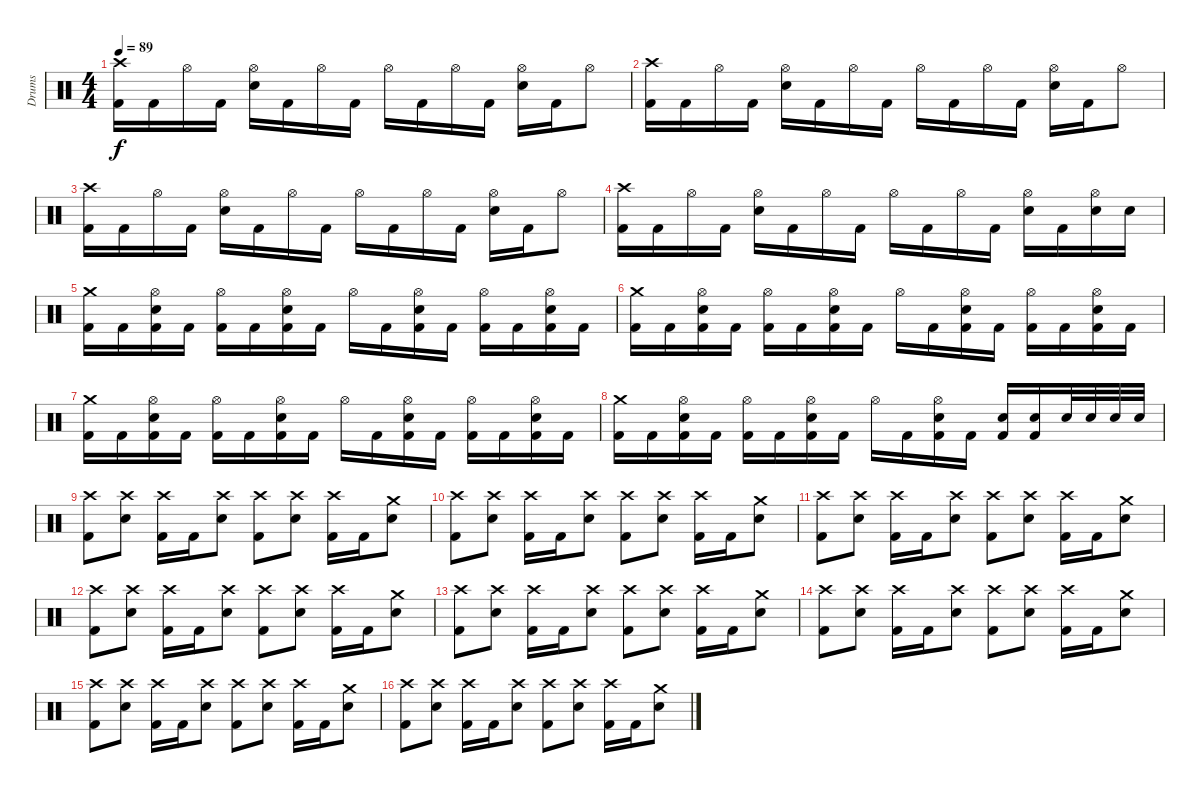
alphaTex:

\track ("Drums" "Drums") {instrument percussion}
\staff {score}
\articulation defaults
\ts (4 4)
\tempo 89
\clef neutral
\ks c
("Kick (hit) 2" "Crash high (hit)").16{dy f} "Kick (hit) 2".16 "Hi-Hat (open)".16 "Kick (hit) 2".16 ("Electric Snare (hit)" "Hi-Hat (open)").16 "Kick (hit) 2".16 "Hi-Hat (open)".16 "Kick (hit) 2".16 "Hi-Hat (open)".16 "Kick (hit) 2".16 "Hi-Hat (open)".16 "Kick (hit) 2".16 ("Electric Snare (hit)" "Hi-Hat (open)").16 "Kick (hit) 2".16 "Hi-Hat (open)".8 |
("Kick (hit) 2" "Crash high (hit)").16 "Kick (hit) 2".16 "Hi-Hat (open)".16 "Kick (hit) 2".16 ("Electric Snare (hit)" "Hi-Hat (open)").16 "Kick (hit) 2".16 "Hi-Hat (open)".16 "Kick (hit) 2".16 "Hi-Hat (open)".16 "Kick (hit) 2".16 "Hi-Hat (open)".16 "Kick (hit) 2".16 ("Electric Snare (hit)" "Hi-Hat (open)").16 "Kick (hit) 2".16 "Hi-Hat (open)".8 |
("Kick (hit) 2" "Crash high (hit)").16 "Kick (hit) 2".16 "Hi-Hat (open)".16 "Kick (hit) 2".16 ("Electric Snare (hit)" "Hi-Hat (open)").16 "Kick (hit) 2".16 "Hi-Hat (open)".16 "Kick (hit) 2".16 "Hi-Hat (open)".16 "Kick (hit) 2".16 "Hi-Hat (open)".16 "Kick (hit) 2".16 ("Electric Snare (hit)" "Hi-Hat (open)").16 "Kick (hit) 2".16 "Hi-Hat (open)".8 |
("Kick (hit) 2" "Crash high (hit)").16 "Kick (hit) 2".16 "Hi-Hat (open)".16 "Kick (hit) 2".16 ("Electric Snare (hit)" "Hi-Hat (open)").16 "Kick (hit) 2".16 "Hi-Hat (open)".16 "Kick (hit) 2".16 "Hi-Hat (open)".16 "Kick (hit) 2".16 "Hi-Hat (open)".16 "Kick (hit) 2".16 ("Electric Snare (hit)" "Hi-Hat (open)").16 "Kick (hit) 2".16 ("Electric Snare (hit)" "Hi-Hat (open)").16 "Electric Snare (hit)".16 |
("Crash medium (hit)" "Kick (hit) 2").16 "Kick (hit) 2".16 ("Hi-Hat (open)" "Electric Snare (hit)" "Kick (hit) 2").16 "Kick (hit) 2".16 ("Hi-Hat (open)" "Kick (hit) 2").16 "Kick (hit) 2".16 ("Hi-Hat (open)" "Electric Snare (hit)" "Kick (hit) 2").16 "Kick (hit) 2".16 "Hi-Hat (open)".16 "Kick (hit) 2".16 ("Hi-Hat (open)" "Electric Snare (hit)" "Kick (hit) 2").16 "Kick (hit) 2".16 ("Hi-Hat (open)" "Kick (hit) 2").16 "Kick (hit) 2".16 ("Hi-Hat (open)" "Electric Snare (hit)" "Kick (hit) 2").16 "Kick (hit) 2".16 |
("Crash medium (hit)" "Kick (hit) 2").16 "Kick (hit) 2".16 ("Hi-Hat (open)" "Electric Snare (hit)" "Kick (hit) 2").16 "Kick (hit) 2".16 ("Hi-Hat (open)" "Kick (hit) 2").16 "Kick (hit) 2".16 ("Hi-Hat (open)" "Electric Snare (hit)" "Kick (hit) 2").16 "Kick (hit) 2".16 "Hi-Hat (open)".16 "Kick (hit) 2".16 ("Hi-Hat (open)" "Electric Snare (hit)" "Kick (hit) 2").16 "Kick (hit) 2".16 ("Hi-Hat (open)" "Kick (hit) 2").16 "Kick (hit) 2".16 ("Hi-Hat (open)" "Electric Snare (hit)" "Kick (hit) 2").16 "Kick (hit) 2".16 |
("Crash medium (hit)" "Kick (hit) 2").16 "Kick (hit) 2".16 ("Hi-Hat (open)" "Electric Snare (hit)" "Kick (hit) 2").16 "Kick (hit) 2".16 ("Hi-Hat (open)" "Kick (hit) 2").16 "Kick (hit) 2".16 ("Hi-Hat (open)" "Electric Snare (hit)" "Kick (hit) 2").16 "Kick (hit) 2".16 "Hi-Hat (open)".16 "Kick (hit) 2".16 ("Hi-Hat (open)" "Electric Snare (hit)" "Kick (hit) 2").16 "Kick (hit) 2".16 ("Hi-Hat (open)" "Kick (hit) 2").16 "Kick (hit) 2".16 ("Hi-Hat (open)" "Electric Snare (hit)" "Kick (hit) 2").16 "Kick (hit) 2".16 |
("Crash medium (hit)" "Kick (hit) 2").16 "Kick (hit) 2".16 ("Hi-Hat (open)" "Electric Snare (hit)" "Kick (hit) 2").16 "Kick (hit) 2".16 ("Hi-Hat (open)" "Kick (hit) 2").16 "Kick (hit) 2".16 ("Hi-Hat (open)" "Electric Snare (hit)" "Kick (hit) 2").16 "Kick (hit) 2".16 "Hi-Hat (open)".16 "Kick (hit) 2".16 ("Hi-Hat (open)" "Electric Snare (hit)" "Kick (hit) 2").16 "Kick (hit) 2".16 ("Kick (hit) 2" "Electric Snare (hit)").16 ("Kick (hit) 2" "Electric Snare (hit)").16 "Electric Snare (hit)".32 "Electric Snare (hit)".32 "Electric Snare (hit)".32 "Electric Snare (hit)".32 |
("Kick (hit) 2" "Crash high (hit)").8 ("Electric Snare (hit)" "Crash high (hit)").8 ("Kick (hit) 2" "Crash high (hit)").16 "Kick (hit) 2".16 ("Electric Snare (hit)" "Crash high (hit)").8 ("Kick (hit) 2" "Crash high (hit)").8 ("Electric Snare (hit)" "Crash high (hit)").8 ("Kick (hit) 2" "Crash high (hit)").16 "Kick (hit) 2".16 ("Electric Snare (hit)" "Crash medium (hit)").8 |
("Kick (hit) 2" "Crash high (hit)").8 ("Electric Snare (hit)" "Crash high (hit)").8 ("Kick (hit) 2" "Crash high (hit)").16 "Kick (hit) 2".16 ("Electric Snare (hit)" "Crash high (hit)").8 ("Kick (hit) 2" "Crash high (hit)").8 ("Electric Snare (hit)" "Crash high (hit)").8 ("Kick (hit) 2" "Crash high (hit)").16 "Kick (hit) 2".16 ("Electric Snare (hit)" "Crash medium (hit)").8 |
("Kick (hit) 2" "Crash high (hit)").8 ("Electric Snare (hit)" "Crash high (hit)").8 ("Kick (hit) 2" "Crash high (hit)").16 "Kick (hit) 2".16 ("Electric Snare (hit)" "Crash high (hit)").8 ("Kick (hit) 2" "Crash high (hit)").8 ("Electric Snare (hit)" "Crash high (hit)").8 ("Kick (hit) 2" "Crash high (hit)").16 "Kick (hit) 2".16 ("Electric Snare (hit)" "Crash medium (hit)").8 |
("Kick (hit) 2" "Crash high (hit)").8 ("Electric Snare (hit)" "Crash high (hit)").8 ("Kick (hit) 2" "Crash high (hit)").16 "Kick (hit) 2".16 ("Electric Snare (hit)" "Crash high (hit)").8 ("Kick (hit) 2" "Crash high (hit)").8 ("Electric Snare (hit)" "Crash high (hit)").8 ("Kick (hit) 2" "Crash high (hit)").16 "Kick (hit) 2".16 ("Electric Snare (hit)" "Crash medium (hit)").8 |
("Kick (hit) 2" "Crash high (hit)").8 ("Electric Snare (hit)" "Crash high (hit)").8 ("Kick (hit) 2" "Crash high (hit)").16 "Kick (hit) 2".16 ("Electric Snare (hit)" "Crash high (hit)").8 ("Kick (hit) 2" "Crash high (hit)").8 ("Electric Snare (hit)" "Crash high (hit)").8 ("Kick (hit) 2" "Crash high (hit)").16 "Kick (hit) 2".16 ("Electric Snare (hit)" "Crash medium (hit)").8 |
("Kick (hit) 2" "Crash high (hit)").8 ("Electric Snare (hit)" "Crash high (hit)").8 ("Kick (hit) 2" "Crash high (hit)").16 "Kick (hit) 2".16 ("Electric Snare (hit)" "Crash high (hit)").8 ("Kick (hit) 2" "Crash high (hit)").8 ("Electric Snare (hit)" "Crash high (hit)").8 ("Kick (hit) 2" "Crash high (hit)").16 "Kick (hit) 2".16 ("Electric Snare (hit)" "Crash medium (hit)").8 |
("Kick (hit) 2" "Crash high (hit)").8 ("Electric Snare (hit)" "Crash high (hit)").8 ("Kick (hit) 2" "Crash high (hit)").16 "Kick (hit) 2".16 ("Electric Snare (hit)" "Crash high (hit)").8 ("Kick (hit) 2" "Crash high (hit)").8 ("Electric Snare (hit)" "Crash high (hit)").8 ("Kick (hit) 2" "Crash high (hit)").16 "Kick (hit) 2".16 ("Electric Snare (hit)" "Crash medium (hit)").8 |
("Kick (hit) 2" "Crash high (hit)").8 ("Electric Snare (hit)" "Crash high (hit)").8 ("Kick (hit) 2" "Crash high (hit)").16 "Kick (hit) 2".16 ("Electric Snare (hit)" "Crash high (hit)").8 ("Kick (hit) 2" "Crash high (hit)").8 ("Electric Snare (hit)" "Crash high (hit)").8 ("Kick (hit) 2" "Crash high (hit)").16 "Kick (hit) 2".16 ("Electric Snare (hit)" "Crash medium (hit)").8
